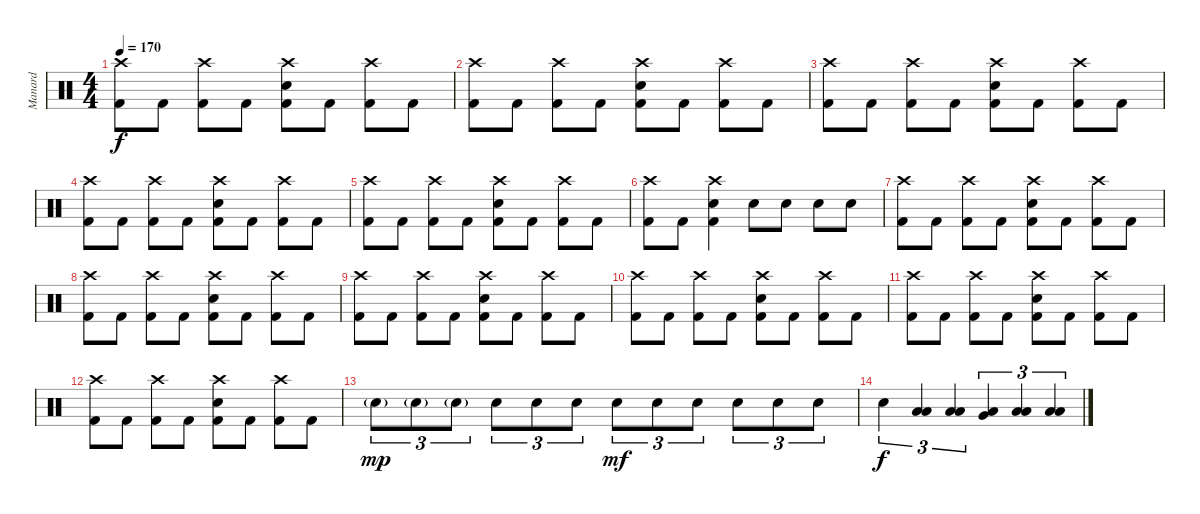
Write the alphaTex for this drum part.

\track ("Manard" "Manard") {instrument percussion}
\staff {score}
\articulation defaults
\ts (4 4)
\tempo 170
\clef neutral
\ks c
("Crash high (hit)" "Kick (hit) 2").8{dy f} "Kick (hit) 2".8 ("Crash high (hit)" "Kick (hit) 2").8 "Kick (hit) 2".8 ("Crash high (hit)" "Snare (hit) 2" "Kick (hit) 2").8 "Kick (hit) 2".8 ("Crash high (hit)" "Kick (hit) 2").8 "Kick (hit) 2".8 |
("Crash high (hit)" "Kick (hit) 2").8 "Kick (hit) 2".8 ("Crash high (hit)" "Kick (hit) 2").8 "Kick (hit) 2".8 ("Crash high (hit)" "Snare (hit) 2" "Kick (hit) 2").8 "Kick (hit) 2".8 ("Crash high (hit)" "Kick (hit) 2").8 "Kick (hit) 2".8 |
("Crash high (hit)" "Kick (hit) 2").8 "Kick (hit) 2".8 ("Crash high (hit)" "Kick (hit) 2").8 "Kick (hit) 2".8 ("Crash high (hit)" "Snare (hit) 2" "Kick (hit) 2").8 "Kick (hit) 2".8 ("Crash high (hit)" "Kick (hit) 2").8 "Kick (hit) 2".8 |
("Crash high (hit)" "Kick (hit) 2").8 "Kick (hit) 2".8 ("Crash high (hit)" "Kick (hit) 2").8 "Kick (hit) 2".8 ("Crash high (hit)" "Snare (hit) 2" "Kick (hit) 2").8 "Kick (hit) 2".8 ("Crash high (hit)" "Kick (hit) 2").8 "Kick (hit) 2".8 |
("Crash high (hit)" "Kick (hit) 2").8 "Kick (hit) 2".8 ("Crash high (hit)" "Kick (hit) 2").8 "Kick (hit) 2".8 ("Crash high (hit)" "Snare (hit) 2" "Kick (hit) 2").8 "Kick (hit) 2".8 ("Crash high (hit)" "Kick (hit) 2").8 "Kick (hit) 2".8 |
("Crash high (hit)" "Kick (hit) 2").8 "Kick (hit) 2".8 ("Crash high (hit)" "Snare (hit) 2" "Kick (hit) 2").4 "Snare (hit) 2".8 "Snare (hit) 2".8 "Snare (hit) 2".8 "Snare (hit) 2".8 |
("Crash high (hit)" "Kick (hit) 2").8 "Kick (hit) 2".8 ("Crash high (hit)" "Kick (hit) 2").8 "Kick (hit) 2".8 ("Crash high (hit)" "Snare (hit) 2" "Kick (hit) 2").8 "Kick (hit) 2".8 ("Crash high (hit)" "Kick (hit) 2").8 "Kick (hit) 2".8 |
("Crash high (hit)" "Kick (hit) 2").8 "Kick (hit) 2".8 ("Crash high (hit)" "Kick (hit) 2").8 "Kick (hit) 2".8 ("Crash high (hit)" "Snare (hit) 2" "Kick (hit) 2").8 "Kick (hit) 2".8 ("Crash high (hit)" "Kick (hit) 2").8 "Kick (hit) 2".8 |
("Crash high (hit)" "Kick (hit) 2").8 "Kick (hit) 2".8 ("Crash high (hit)" "Kick (hit) 2").8 "Kick (hit) 2".8 ("Crash high (hit)" "Snare (hit) 2" "Kick (hit) 2").8 "Kick (hit) 2".8 ("Crash high (hit)" "Kick (hit) 2").8 "Kick (hit) 2".8 |
("Crash high (hit)" "Kick (hit) 2").8 "Kick (hit) 2".8 ("Crash high (hit)" "Kick (hit) 2").8 "Kick (hit) 2".8 ("Crash high (hit)" "Snare (hit) 2" "Kick (hit) 2").8 "Kick (hit) 2".8 ("Crash high (hit)" "Kick (hit) 2").8 "Kick (hit) 2".8 |
("Crash high (hit)" "Kick (hit) 2").8 "Kick (hit) 2".8 ("Crash high (hit)" "Kick (hit) 2").8 "Kick (hit) 2".8 ("Crash high (hit)" "Snare (hit) 2" "Kick (hit) 2").8 "Kick (hit) 2".8 ("Crash high (hit)" "Kick (hit) 2").8 "Kick (hit) 2".8 |
("Crash high (hit)" "Kick (hit) 2").8 "Kick (hit) 2".8 ("Crash high (hit)" "Kick (hit) 2").8 "Kick (hit) 2".8 ("Crash high (hit)" "Snare (hit) 2" "Kick (hit) 2").8 "Kick (hit) 2".8 ("Crash high (hit)" "Kick (hit) 2").8 "Kick (hit) 2".8 |
"Snare (hit) 2"{g}.8{tu (3 2) dy mp} "Snare (hit) 2"{g}.8{tu (3 2)} "Snare (hit) 2"{g}.8{tu (3 2)} "Snare (hit) 2".8{tu (3 2)} "Snare (hit) 2".8{tu (3 2)} "Snare (hit) 2".8{tu (3 2)} "Snare (hit) 2".8{tu (3 2) dy mf} "Snare (hit) 2".8{tu (3 2)} "Snare (hit) 2".8{tu (3 2)} "Snare (hit) 2".8{tu (3 2)} "Snare (hit) 2".8{tu (3 2)} "Snare (hit) 2".8{tu (3 2)} |
"Snare (hit) 2".4{tu (3 2) dy f} ("Low Floor Tom (hit)" "Low Tom (hit)").4{tu (3 2)} ("Low Floor Tom (hit)" "Low Tom (hit)").4{tu (3 2)} ("Low Floor Tom (hit)" "Very Low Tom (hit)").4{tu (3 2)} ("Low Floor Tom (hit)" "Low Tom (hit)").4{tu (3 2)} ("Low Floor Tom (hit)" "Low Tom (hit)").4{tu (3 2)}
